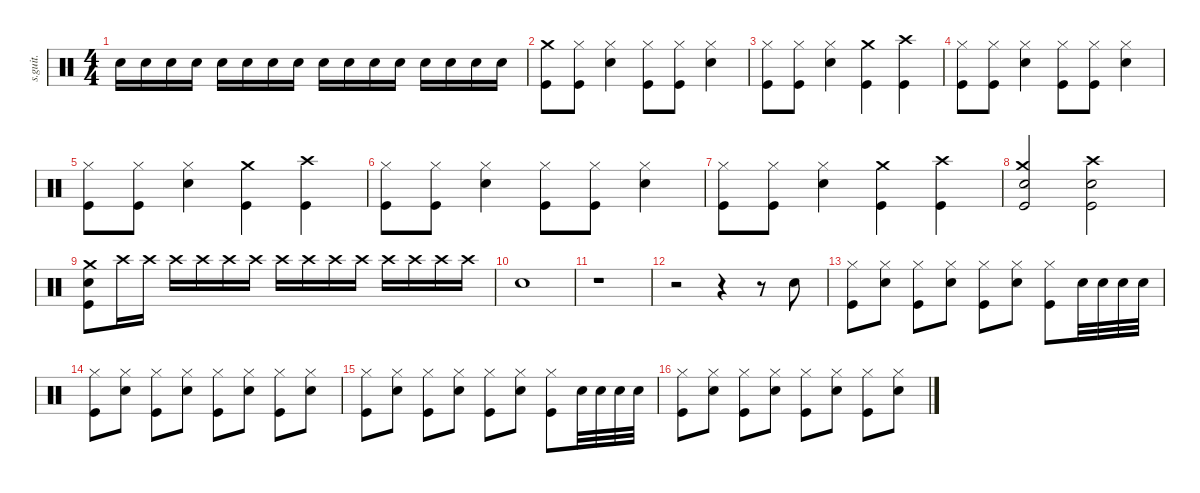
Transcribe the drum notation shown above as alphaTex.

\defaultSystemsLayout 4
\hideDynamics
\bracketExtendMode nobrackets
\track ("batteire(jesus bonehead)" "s.guit.") {instrument percussion}
\staff {score}
\articulation defaults
\ts (4 4)
\tempo (125 hide)
\clef neutral
\ks c "Snare (hit) 2".16{dy f} "Snare (hit) 2".16 "Snare (hit) 2".16 "Snare (hit) 2".16 "Snare (hit) 2".16 "Snare (hit) 2".16 "Snare (hit) 2".16 "Snare (hit) 2".16 "Snare (hit) 2".16 "Snare (hit) 2".16 "Snare (hit) 2".16 "Snare (hit) 2".16 "Snare (hit) 2".16 "Snare (hit) 2".16 "Snare (hit) 2".16 "Snare (hit) 2".16
|
("Crash medium (hit)" "Kick (hit)").8 ("Hi-Hat (closed)" "Kick (hit)").8 ("Hi-Hat (closed)" "Snare (hit) 2").4 ("Hi-Hat (closed)" "Kick (hit)").8 ("Hi-Hat (closed)" "Kick (hit)").8 ("Hi-Hat (closed)" "Snare (hit) 2").4 |
("Hi-Hat (closed)" "Kick (hit)").8 ("Hi-Hat (closed)" "Kick (hit)").8 ("Hi-Hat (closed)" "Snare (hit) 2").4 ("Crash medium (hit)" "Kick (hit)").4 ("Crash high (hit)" "Kick (hit)").4 |
("Hi-Hat (closed)" "Kick (hit)").8 ("Hi-Hat (closed)" "Kick (hit)").8 ("Hi-Hat (closed)" "Snare (hit) 2").4 ("Hi-Hat (closed)" "Kick (hit)").8 ("Hi-Hat (closed)" "Kick (hit)").8 ("Hi-Hat (closed)" "Snare (hit) 2").4 |
("Hi-Hat (closed)" "Kick (hit)").8 ("Hi-Hat (closed)" "Kick (hit)").8 ("Hi-Hat (closed)" "Snare (hit) 2").4 ("Crash medium (hit)" "Kick (hit)").4 ("Crash high (hit)" "Kick (hit)").4 |
("Hi-Hat (closed)" "Kick (hit)").8 ("Hi-Hat (closed)" "Kick (hit)").8 ("Hi-Hat (closed)" "Snare (hit) 2").4 ("Hi-Hat (closed)" "Kick (hit)").8 ("Hi-Hat (closed)" "Kick (hit)").8 ("Hi-Hat (closed)" "Snare (hit) 2").4 |
("Hi-Hat (closed)" "Kick (hit)").8 ("Hi-Hat (closed)" "Kick (hit)").8 ("Hi-Hat (closed)" "Snare (hit) 2").4 ("Crash medium (hit)" "Kick (hit)").4 ("Crash high (hit)" "Kick (hit)").4 |
("Crash medium (hit)" "Snare (hit) 2" "Kick (hit)").2 ("Crash high (hit)" "Snare (hit) 2" "Kick (hit)").2 |
("Crash medium (hit)" "Snare (hit) 2" "Kick (hit)").8 "Crash high (hit)".16 "Crash high (hit)".16 "Crash high (hit)".16 "Crash high (hit)".16 "Crash high (hit)".16 "Crash high (hit)".16 "Crash high (hit)".16 "Crash high (hit)".16 "Crash high (hit)".16 "Crash high (hit)".16 "Crash high (hit)".16 "Crash high (hit)".16 "Crash high (hit)".16 "Crash high (hit)".16 |
"Snare (hit) 2".1 |
\tempo (160 hide)
r.1 |
r.2 r.4 r.8 "Snare (hit) 2".8 |
("Hi-Hat (closed)" "Kick (hit)").8 ("Hi-Hat (closed)" "Snare (hit) 2").8 ("Hi-Hat (closed)" "Kick (hit)").8 ("Hi-Hat (closed)" "Snare (hit) 2").8 ("Hi-Hat (closed)" "Kick (hit)").8 ("Hi-Hat (closed)" "Snare (hit) 2").8 ("Hi-Hat (closed)" "Kick (hit)").8 "Snare (hit) 2".32 "Snare (hit) 2".32 "Snare (hit) 2".32 "Snare (hit) 2".32 |
("Hi-Hat (closed)" "Kick (hit)").8 ("Hi-Hat (closed)" "Snare (hit) 2").8 ("Hi-Hat (closed)" "Kick (hit)").8 ("Hi-Hat (closed)" "Snare (hit) 2").8 ("Hi-Hat (closed)" "Kick (hit)").8 ("Hi-Hat (closed)" "Snare (hit) 2").8 ("Hi-Hat (closed)" "Kick (hit)").8 ("Hi-Hat (closed)" "Snare (hit) 2").8 |
("Hi-Hat (closed)" "Kick (hit)").8 ("Hi-Hat (closed)" "Snare (hit) 2").8 ("Hi-Hat (closed)" "Kick (hit)").8 ("Hi-Hat (closed)" "Snare (hit) 2").8 ("Hi-Hat (closed)" "Kick (hit)").8 ("Hi-Hat (closed)" "Snare (hit) 2").8 ("Hi-Hat (closed)" "Kick (hit)").8 "Snare (hit) 2".32 "Snare (hit) 2".32 "Snare (hit) 2".32 "Snare (hit) 2".32 |
("Hi-Hat (closed)" "Kick (hit)").8 ("Hi-Hat (closed)" "Snare (hit) 2").8 ("Hi-Hat (closed)" "Kick (hit)").8 ("Hi-Hat (closed)" "Snare (hit) 2").8 ("Hi-Hat (closed)" "Kick (hit)").8 ("Hi-Hat (closed)" "Snare (hit) 2").8 ("Hi-Hat (closed)" "Kick (hit)").8 ("Hi-Hat (closed)" "Snare (hit) 2").8
